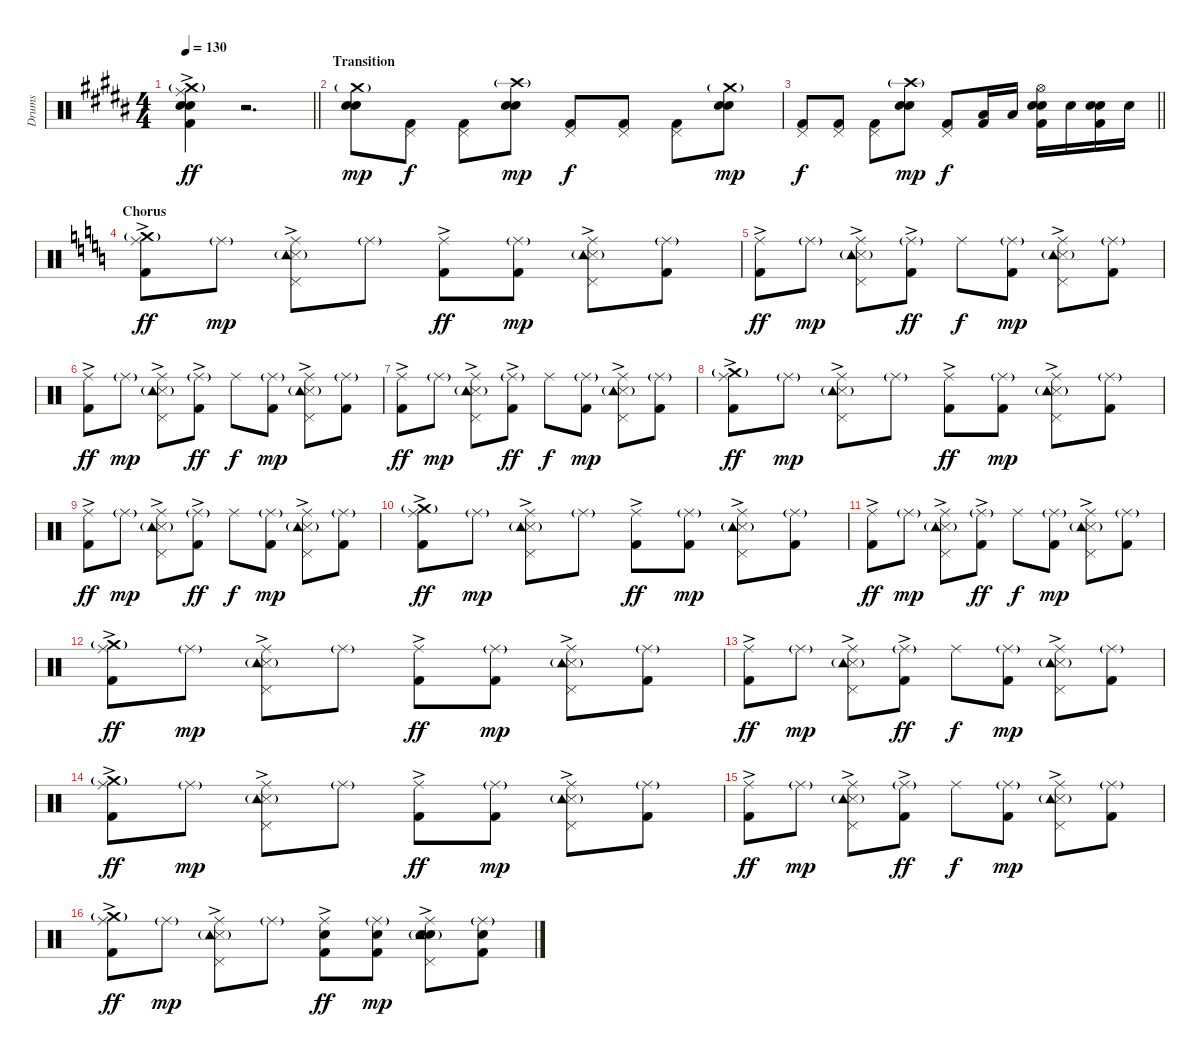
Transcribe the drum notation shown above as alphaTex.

\track ("Drums" "Drums") {instrument percussion}
\staff {score}
\articulation defaults
\ts (4 4)
\tempo 130
\clef neutral
\barLineRight lightlight
\ks b
("Ride (middle)" "Crash medium (hit)"{g} "Electric Snare (hit)" "Snare (hit) 2" "Kick (hit) 2"{ac}).4{dy ff} r.2{d} |
\section ("" "Transition")
("Crash medium (hit)"{g} "Electric Snare (hit)" "Snare (hit) 2").8{dy mp} ("Pedal Hi-Hat (hit)" "Kick (hit) 2").8{dy f} ("Pedal Hi-Hat (hit)" "Kick (hit) 2").8 ("Crash high (hit)"{g} "Electric Snare (hit)" "Snare (hit) 2").8{dy mp} ("Pedal Hi-Hat (hit)" "Kick (hit) 2").8{dy f} ("Pedal Hi-Hat (hit)" "Kick (hit) 2").8 ("Pedal Hi-Hat (hit)" "Kick (hit) 2").8 ("Crash medium (hit)"{g} "Electric Snare (hit)" "Snare (hit) 2").8{dy mp} |
\barLineRight lightlight
("Pedal Hi-Hat (hit)" "Kick (hit) 2").8{dy f} ("Pedal Hi-Hat (hit)" "Kick (hit) 2").8 ("Pedal Hi-Hat (hit)" "Kick (hit) 2").8 ("Crash high (hit)"{g} "Electric Snare (hit)" "Snare (hit) 2").8{dy mp} ("Pedal Hi-Hat (hit)" "Kick (hit) 2").8{dy f} ("Low Tom (hit)" "Kick (hit) 2").16 "Low Tom (hit)".16 ("Hi-Hat (open)" "Electric Snare (hit)" "Snare (hit) 2" "Kick (hit) 2").16 "Electric Snare (hit)".16 ("Electric Snare (hit)" "Snare (hit) 2" "Kick (hit) 2").16 "Electric Snare (hit)".16 |
\section ("" "Chorus")
\ks c
("Ride (middle)" "Crash medium (hit)"{g} "Kick (hit) 2"{ac}).8{dy ff} "Ride (middle)"{g}.8{dy mp} ("Ride (middle)" "Pedal Hi-Hat (hit)" "Snare (side stick) 3"{ac} "Tambourine (hit)"{g}).8 "Ride (middle)"{g}.8 ("Ride (middle)" "Kick (hit) 2"{ac}).8{dy ff} ("Ride (middle)"{g} "Kick (hit) 2").8{dy mp} ("Ride (middle)" "Pedal Hi-Hat (hit)" "Snare (side stick) 3"{ac} "Tambourine (hit)"{g}).8 ("Ride (middle)"{g} "Kick (hit) 2").8 |
("Ride (middle)" "Kick (hit) 2"{ac}).8{dy ff} "Ride (middle)"{g}.8{dy mp} ("Ride (middle)" "Pedal Hi-Hat (hit)" "Snare (side stick) 3"{ac} "Tambourine (hit)"{g}).8 ("Ride (middle)"{g} "Kick (hit) 2"{ac}).8{dy ff} "Ride (middle)".8{dy f} ("Ride (middle)"{g} "Kick (hit) 2").8{dy mp} ("Ride (middle)" "Pedal Hi-Hat (hit)" "Snare (side stick) 3"{ac} "Tambourine (hit)"{g}).8 ("Ride (middle)"{g} "Kick (hit) 2").8 |
("Ride (middle)" "Kick (hit) 2"{ac}).8{dy ff} "Ride (middle)"{g}.8{dy mp} ("Ride (middle)" "Pedal Hi-Hat (hit)" "Snare (side stick) 3"{ac} "Tambourine (hit)"{g}).8 ("Ride (middle)"{g} "Kick (hit) 2"{ac}).8{dy ff} "Ride (middle)".8{dy f} ("Ride (middle)"{g} "Kick (hit) 2").8{dy mp} ("Ride (middle)" "Pedal Hi-Hat (hit)" "Snare (side stick) 3"{ac} "Tambourine (hit)"{g}).8 ("Ride (middle)"{g} "Kick (hit) 2").8 |
("Ride (middle)" "Kick (hit) 2"{ac}).8{dy ff} "Ride (middle)"{g}.8{dy mp} ("Ride (middle)" "Pedal Hi-Hat (hit)" "Snare (side stick) 3"{ac} "Tambourine (hit)"{g}).8 ("Ride (middle)"{g} "Kick (hit) 2"{ac}).8{dy ff} "Ride (middle)".8{dy f} ("Ride (middle)"{g} "Kick (hit) 2").8{dy mp} ("Ride (middle)" "Pedal Hi-Hat (hit)" "Snare (side stick) 3"{ac} "Tambourine (hit)"{g}).8 ("Ride (middle)"{g} "Kick (hit) 2").8 |
("Ride (middle)" "Crash medium (hit)"{g} "Kick (hit) 2"{ac}).8{dy ff} "Ride (middle)"{g}.8{dy mp} ("Ride (middle)" "Pedal Hi-Hat (hit)" "Snare (side stick) 3"{ac} "Tambourine (hit)"{g}).8 "Ride (middle)"{g}.8 ("Ride (middle)" "Kick (hit) 2"{ac}).8{dy ff} ("Ride (middle)"{g} "Kick (hit) 2").8{dy mp} ("Ride (middle)" "Pedal Hi-Hat (hit)" "Snare (side stick) 3"{ac} "Tambourine (hit)"{g}).8 ("Ride (middle)"{g} "Kick (hit) 2").8 |
("Ride (middle)" "Kick (hit) 2"{ac}).8{dy ff} "Ride (middle)"{g}.8{dy mp} ("Ride (middle)" "Pedal Hi-Hat (hit)" "Snare (side stick) 3"{ac} "Tambourine (hit)"{g}).8 ("Ride (middle)"{g} "Kick (hit) 2"{ac}).8{dy ff} "Ride (middle)".8{dy f} ("Ride (middle)"{g} "Kick (hit) 2").8{dy mp} ("Ride (middle)" "Pedal Hi-Hat (hit)" "Snare (side stick) 3"{ac} "Tambourine (hit)"{g}).8 ("Ride (middle)"{g} "Kick (hit) 2").8 |
("Ride (middle)" "Crash medium (hit)"{g} "Kick (hit) 2"{ac}).8{dy ff} "Ride (middle)"{g}.8{dy mp} ("Ride (middle)" "Pedal Hi-Hat (hit)" "Snare (side stick) 3"{ac} "Tambourine (hit)"{g}).8 "Ride (middle)"{g}.8 ("Ride (middle)" "Kick (hit) 2"{ac}).8{dy ff} ("Ride (middle)"{g} "Kick (hit) 2").8{dy mp} ("Ride (middle)" "Pedal Hi-Hat (hit)" "Snare (side stick) 3"{ac} "Tambourine (hit)"{g}).8 ("Ride (middle)"{g} "Kick (hit) 2").8 |
("Ride (middle)" "Kick (hit) 2"{ac}).8{dy ff} "Ride (middle)"{g}.8{dy mp} ("Ride (middle)" "Pedal Hi-Hat (hit)" "Snare (side stick) 3"{ac} "Tambourine (hit)"{g}).8 ("Ride (middle)"{g} "Kick (hit) 2"{ac}).8{dy ff} "Ride (middle)".8{dy f} ("Ride (middle)"{g} "Kick (hit) 2").8{dy mp} ("Ride (middle)" "Pedal Hi-Hat (hit)" "Snare (side stick) 3"{ac} "Tambourine (hit)"{g}).8 ("Ride (middle)"{g} "Kick (hit) 2").8 |
("Ride (middle)" "Crash medium (hit)"{g} "Kick (hit) 2"{ac}).8{dy ff} "Ride (middle)"{g}.8{dy mp} ("Ride (middle)" "Pedal Hi-Hat (hit)" "Snare (side stick) 3"{ac} "Tambourine (hit)"{g}).8 "Ride (middle)"{g}.8 ("Ride (middle)" "Kick (hit) 2"{ac}).8{dy ff} ("Ride (middle)"{g} "Kick (hit) 2").8{dy mp} ("Ride (middle)" "Pedal Hi-Hat (hit)" "Snare (side stick) 3"{ac} "Tambourine (hit)"{g}).8 ("Ride (middle)"{g} "Kick (hit) 2").8 |
("Ride (middle)" "Kick (hit) 2"{ac}).8{dy ff} "Ride (middle)"{g}.8{dy mp} ("Ride (middle)" "Pedal Hi-Hat (hit)" "Snare (side stick) 3"{ac} "Tambourine (hit)"{g}).8 ("Ride (middle)"{g} "Kick (hit) 2"{ac}).8{dy ff} "Ride (middle)".8{dy f} ("Ride (middle)"{g} "Kick (hit) 2").8{dy mp} ("Ride (middle)" "Pedal Hi-Hat (hit)" "Snare (side stick) 3"{ac} "Tambourine (hit)"{g}).8 ("Ride (middle)"{g} "Kick (hit) 2").8 |
("Ride (middle)" "Crash medium (hit)"{g} "Kick (hit) 2"{ac}).8{dy ff} "Ride (middle)"{g}.8{dy mp} ("Ride (middle)" "Pedal Hi-Hat (hit)" "Snare (side stick) 3"{ac} "Tambourine (hit)"{g}).8 "Ride (middle)"{g}.8 ("Ride (middle)" "Kick (hit) 2"{ac}).8{dy ff} ("Ride (middle)"{g} "Kick (hit) 2").8{dy mp} ("Ride (middle)" "Pedal Hi-Hat (hit)" "Snare (side stick) 3"{ac} "Tambourine (hit)"{g}).8 ("Ride (middle)"{g} "Kick (hit) 2").8 |
("Ride (middle)" "Kick (hit) 2"{ac}).8{dy ff} "Ride (middle)"{g}.8{dy mp} ("Ride (middle)" "Pedal Hi-Hat (hit)" "Snare (side stick) 3"{ac} "Tambourine (hit)"{g}).8 ("Ride (middle)"{g} "Kick (hit) 2"{ac}).8{dy ff} "Ride (middle)".8{dy f} ("Ride (middle)"{g} "Kick (hit) 2").8{dy mp} ("Ride (middle)" "Pedal Hi-Hat (hit)" "Snare (side stick) 3"{ac} "Tambourine (hit)"{g}).8 ("Ride (middle)"{g} "Kick (hit) 2").8 |
("Ride (middle)" "Crash medium (hit)"{g} "Kick (hit) 2"{ac}).8{dy ff} "Ride (middle)"{g}.8{dy mp} ("Ride (middle)" "Pedal Hi-Hat (hit)" "Snare (side stick) 3"{ac} "Tambourine (hit)"{g}).8 "Ride (middle)"{g}.8 ("Ride (middle)" "Electric Snare (hit)" "Kick (hit) 2"{ac}).8{dy ff} ("Ride (middle)"{g} "Electric Snare (hit)" "Kick (hit) 2").8{dy mp} ("Ride (middle)" "Pedal Hi-Hat (hit)" "Snare (hit) 2"{ac} "Electric Snare (hit)" "Tambourine (hit)"{g}).8 ("Ride (middle)"{g} "Electric Snare (hit)" "Kick (hit) 2").8
